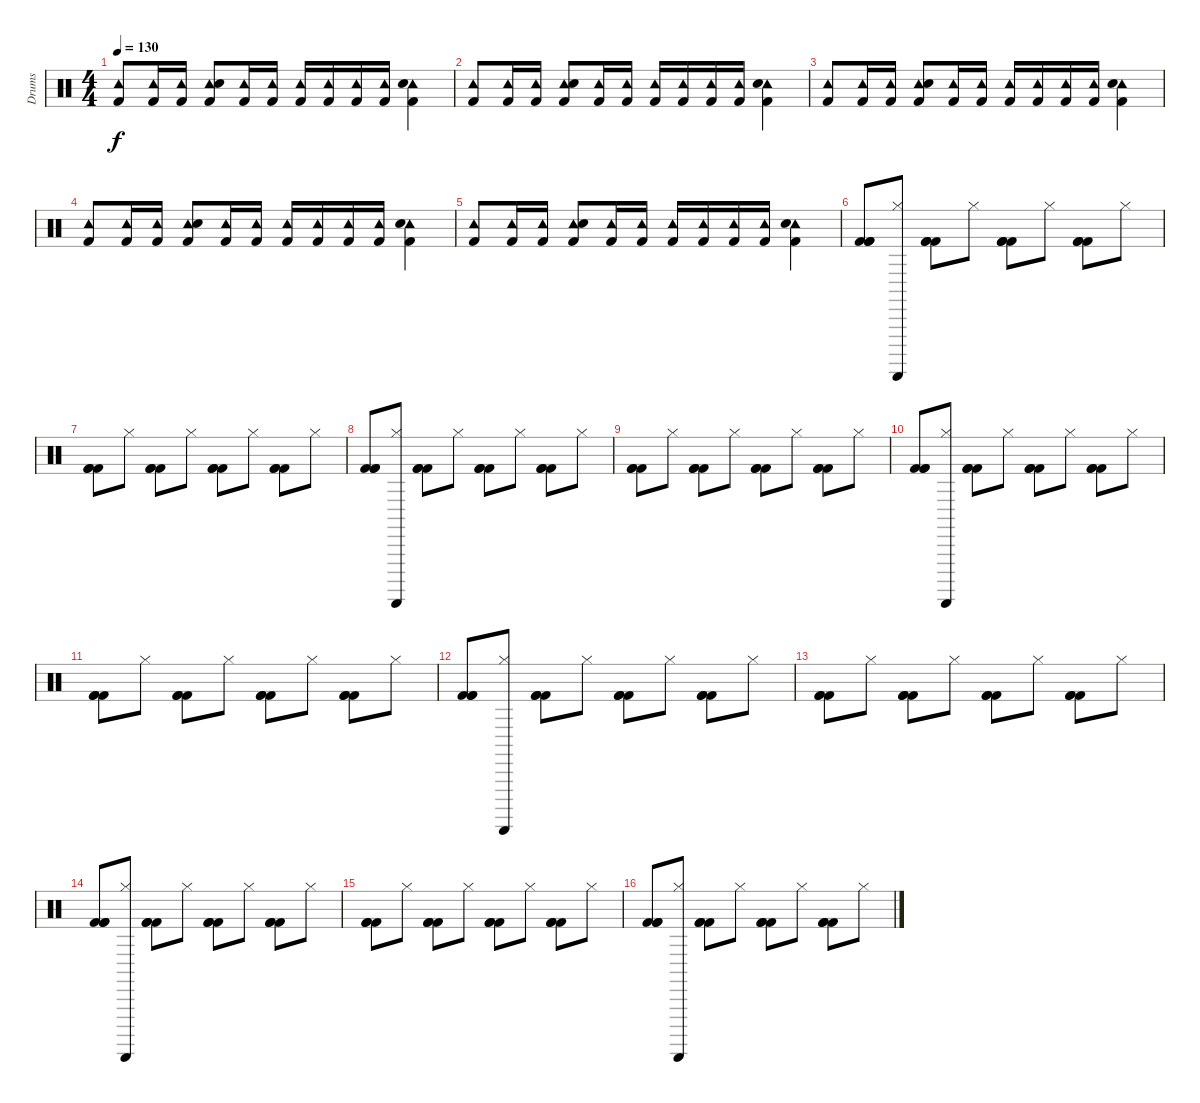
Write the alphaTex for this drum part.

\track ("Drums" "Drums") {instrument percussion}
\staff {score}
\articulation defaults
\ts (4 4)
\tempo 130
\clef neutral
\ks c
("Tambourine (hit)" "Kick (hit) 2").8{dy f} ("Tambourine (hit)" "Kick (hit) 2").16 ("Tambourine (hit)" "Kick (hit) 2").16 ("Tambourine (hit)" "Kick (hit) 2" "Electric Snare (hit)").8 ("Tambourine (hit)" "Kick (hit) 2").16 ("Tambourine (hit)" "Kick (hit) 2").16 ("Tambourine (hit)" "Kick (hit) 2").16 ("Tambourine (hit)" "Kick (hit) 2").16 ("Tambourine (hit)" "Kick (hit) 2").16 ("Tambourine (hit)" "Kick (hit) 2").16 ("Tambourine (hit)" "Kick (hit) 2" "Electric Snare (hit)").4 |
("Tambourine (hit)" "Kick (hit) 2").8 ("Tambourine (hit)" "Kick (hit) 2").16 ("Tambourine (hit)" "Kick (hit) 2").16 ("Tambourine (hit)" "Kick (hit) 2" "Electric Snare (hit)").8 ("Tambourine (hit)" "Kick (hit) 2").16 ("Tambourine (hit)" "Kick (hit) 2").16 ("Tambourine (hit)" "Kick (hit) 2").16 ("Tambourine (hit)" "Kick (hit) 2").16 ("Tambourine (hit)" "Kick (hit) 2").16 ("Tambourine (hit)" "Kick (hit) 2").16 ("Tambourine (hit)" "Kick (hit) 2" "Electric Snare (hit)").4 |
("Tambourine (hit)" "Kick (hit) 2").8 ("Tambourine (hit)" "Kick (hit) 2").16 ("Tambourine (hit)" "Kick (hit) 2").16 ("Tambourine (hit)" "Kick (hit) 2" "Electric Snare (hit)").8 ("Tambourine (hit)" "Kick (hit) 2").16 ("Tambourine (hit)" "Kick (hit) 2").16 ("Tambourine (hit)" "Kick (hit) 2").16 ("Tambourine (hit)" "Kick (hit) 2").16 ("Tambourine (hit)" "Kick (hit) 2").16 ("Tambourine (hit)" "Kick (hit) 2").16 ("Tambourine (hit)" "Kick (hit) 2" "Electric Snare (hit)").4 |
("Tambourine (hit)" "Kick (hit) 2").8 ("Tambourine (hit)" "Kick (hit) 2").16 ("Tambourine (hit)" "Kick (hit) 2").16 ("Tambourine (hit)" "Kick (hit) 2" "Electric Snare (hit)").8 ("Tambourine (hit)" "Kick (hit) 2").16 ("Tambourine (hit)" "Kick (hit) 2").16 ("Tambourine (hit)" "Kick (hit) 2").16 ("Tambourine (hit)" "Kick (hit) 2").16 ("Tambourine (hit)" "Kick (hit) 2").16 ("Tambourine (hit)" "Kick (hit) 2").16 ("Tambourine (hit)" "Kick (hit) 2" "Electric Snare (hit)").4 |
("Tambourine (hit)" "Kick (hit) 2").8 ("Tambourine (hit)" "Kick (hit) 2").16 ("Tambourine (hit)" "Kick (hit) 2").16 ("Tambourine (hit)" "Kick (hit) 2" "Electric Snare (hit)").8 ("Tambourine (hit)" "Kick (hit) 2").16 ("Tambourine (hit)" "Kick (hit) 2").16 ("Tambourine (hit)" "Kick (hit) 2").16 ("Tambourine (hit)" "Kick (hit) 2").16 ("Tambourine (hit)" "Kick (hit) 2").16 ("Tambourine (hit)" "Kick (hit) 2").16 ("Tambourine (hit)" "Kick (hit) 2" "Electric Snare (hit)").4 |
("Kick (hit) 2" "Kick (hit) 2" "Kick (hit) 2").8 ("Guiro (scrap-return)" "Hi-Hat (closed)").8 ("Kick (hit) 2" "Kick (hit) 2" "Kick (hit) 2").8 "Hi-Hat (closed)".8 ("Kick (hit) 2" "Kick (hit) 2" "Kick (hit) 2").8 "Hi-Hat (closed)".8 ("Kick (hit) 2" "Kick (hit) 2" "Kick (hit) 2").8 "Hi-Hat (closed)".8 |
("Kick (hit) 2" "Kick (hit) 2" "Kick (hit) 2").8 "Hi-Hat (closed)".8 ("Kick (hit) 2" "Kick (hit) 2" "Kick (hit) 2").8 "Hi-Hat (closed)".8 ("Kick (hit) 2" "Kick (hit) 2" "Kick (hit) 2").8 "Hi-Hat (closed)".8 ("Kick (hit) 2" "Kick (hit) 2" "Kick (hit) 2").8 "Hi-Hat (closed)".8 |
("Kick (hit) 2" "Kick (hit) 2" "Kick (hit) 2").8 ("Guiro (scrap-return)" "Hi-Hat (closed)").8 ("Kick (hit) 2" "Kick (hit) 2" "Kick (hit) 2").8 "Hi-Hat (closed)".8 ("Kick (hit) 2" "Kick (hit) 2" "Kick (hit) 2").8 "Hi-Hat (closed)".8 ("Kick (hit) 2" "Kick (hit) 2" "Kick (hit) 2").8 "Hi-Hat (closed)".8 |
("Kick (hit) 2" "Kick (hit) 2" "Kick (hit) 2").8 "Hi-Hat (closed)".8 ("Kick (hit) 2" "Kick (hit) 2" "Kick (hit) 2").8 "Hi-Hat (closed)".8 ("Kick (hit) 2" "Kick (hit) 2" "Kick (hit) 2").8 "Hi-Hat (closed)".8 ("Kick (hit) 2" "Kick (hit) 2" "Kick (hit) 2").8 "Hi-Hat (closed)".8 |
("Kick (hit) 2" "Kick (hit) 2" "Kick (hit) 2").8 ("Guiro (scrap-return)" "Hi-Hat (closed)").8 ("Kick (hit) 2" "Kick (hit) 2" "Kick (hit) 2").8 "Hi-Hat (closed)".8 ("Kick (hit) 2" "Kick (hit) 2" "Kick (hit) 2").8 "Hi-Hat (closed)".8 ("Kick (hit) 2" "Kick (hit) 2" "Kick (hit) 2").8 "Hi-Hat (closed)".8 |
("Kick (hit) 2" "Kick (hit) 2" "Kick (hit) 2").8 "Hi-Hat (closed)".8 ("Kick (hit) 2" "Kick (hit) 2" "Kick (hit) 2").8 "Hi-Hat (closed)".8 ("Kick (hit) 2" "Kick (hit) 2" "Kick (hit) 2").8 "Hi-Hat (closed)".8 ("Kick (hit) 2" "Kick (hit) 2" "Kick (hit) 2").8 "Hi-Hat (closed)".8 |
("Kick (hit) 2" "Kick (hit) 2" "Kick (hit) 2").8 ("Guiro (scrap-return)" "Hi-Hat (closed)").8 ("Kick (hit) 2" "Kick (hit) 2" "Kick (hit) 2").8 "Hi-Hat (closed)".8 ("Kick (hit) 2" "Kick (hit) 2" "Kick (hit) 2").8 "Hi-Hat (closed)".8 ("Kick (hit) 2" "Kick (hit) 2" "Kick (hit) 2").8 "Hi-Hat (closed)".8 |
("Kick (hit) 2" "Kick (hit) 2" "Kick (hit) 2").8 "Hi-Hat (closed)".8 ("Kick (hit) 2" "Kick (hit) 2" "Kick (hit) 2").8 "Hi-Hat (closed)".8 ("Kick (hit) 2" "Kick (hit) 2" "Kick (hit) 2").8 "Hi-Hat (closed)".8 ("Kick (hit) 2" "Kick (hit) 2" "Kick (hit) 2").8 "Hi-Hat (closed)".8 |
("Kick (hit) 2" "Kick (hit) 2" "Kick (hit) 2").8 ("Guiro (scrap-return)" "Hi-Hat (closed)").8 ("Kick (hit) 2" "Kick (hit) 2" "Kick (hit) 2").8 "Hi-Hat (closed)".8 ("Kick (hit) 2" "Kick (hit) 2" "Kick (hit) 2").8 "Hi-Hat (closed)".8 ("Kick (hit) 2" "Kick (hit) 2" "Kick (hit) 2").8 "Hi-Hat (closed)".8 |
("Kick (hit) 2" "Kick (hit) 2" "Kick (hit) 2").8 "Hi-Hat (closed)".8 ("Kick (hit) 2" "Kick (hit) 2" "Kick (hit) 2").8 "Hi-Hat (closed)".8 ("Kick (hit) 2" "Kick (hit) 2" "Kick (hit) 2").8 "Hi-Hat (closed)".8 ("Kick (hit) 2" "Kick (hit) 2" "Kick (hit) 2").8 "Hi-Hat (closed)".8 |
("Kick (hit) 2" "Kick (hit) 2" "Kick (hit) 2").8 ("Guiro (scrap-return)" "Hi-Hat (closed)").8 ("Kick (hit) 2" "Kick (hit) 2" "Kick (hit) 2").8 "Hi-Hat (closed)".8 ("Kick (hit) 2" "Kick (hit) 2" "Kick (hit) 2").8 "Hi-Hat (closed)".8 ("Kick (hit) 2" "Kick (hit) 2" "Kick (hit) 2").8 "Hi-Hat (closed)".8
